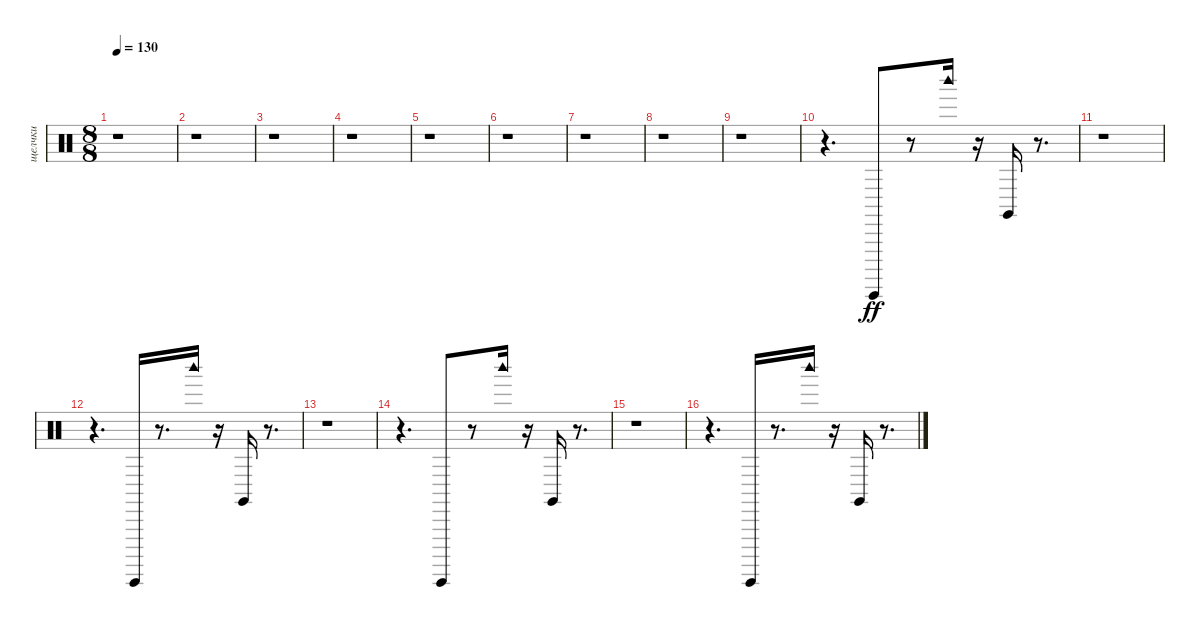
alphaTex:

\track ("щелчки" "щелчки") {instrument percussion}
\staff {score}
\articulation defaults
\ts (8 8)
\tempo 130
\clef neutral
\ks c
r.1{dy ff} |
r.1 |
r.1 |
r.1 |
r.1 |
r.1 |
r.1 |
r.1 |
r.1 |
r.4{d} "Guiro (hit)".8 r.8 "Woodblock high (hit)".16 r.16 "Claves (hit)".16 r.8{d} |
r.1 |
r.4{d} "Guiro (hit)".16 r.8{d} "Woodblock high (hit)".16 r.16 "Claves (hit)".16 r.8{d} |
r.1 |
r.4{d} "Guiro (hit)".8 r.8 "Woodblock high (hit)".16 r.16 "Claves (hit)".16 r.8{d} |
r.1 |
r.4{d} "Guiro (hit)".16 r.8{d} "Woodblock high (hit)".16 r.16 "Claves (hit)".16 r.8{d}
